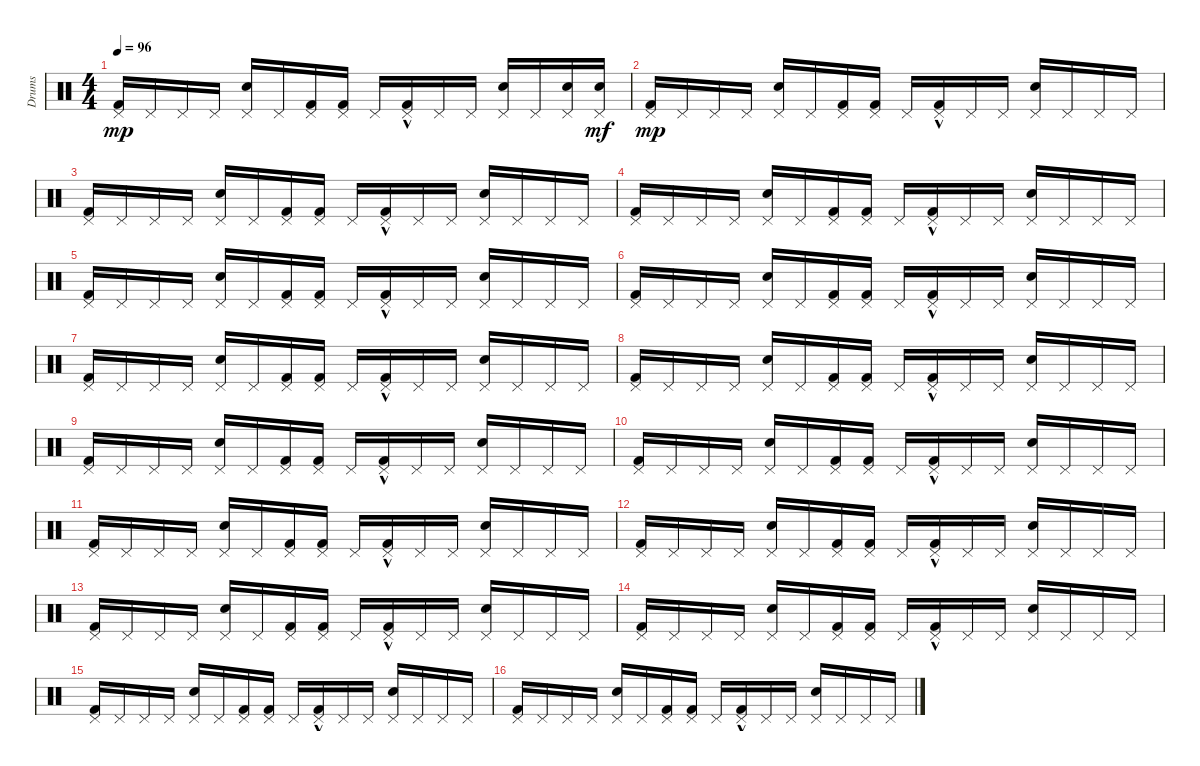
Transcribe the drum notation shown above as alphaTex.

\track ("Drums" "Drums") {instrument percussion}
\staff {score}
\articulation defaults
\ts (4 4)
\tempo 96
\clef neutral
\ks c
("Pedal Hi-Hat (hit)" "Kick (hit) 2").16{dy mp} "Pedal Hi-Hat (hit)".16 "Pedal Hi-Hat (hit)".16 "Pedal Hi-Hat (hit)".16 ("Electric Snare (hit)" "Pedal Hi-Hat (hit)").16 "Pedal Hi-Hat (hit)".16 ("Pedal Hi-Hat (hit)" "Kick (hit) 2").16 ("Pedal Hi-Hat (hit)" "Kick (hit) 2").16 "Pedal Hi-Hat (hit)".16 ("Pedal Hi-Hat (hit)" "Kick (hit) 2"{hac}).16 "Pedal Hi-Hat (hit)".16 "Pedal Hi-Hat (hit)".16 ("Electric Snare (hit)" "Pedal Hi-Hat (hit)").16 "Pedal Hi-Hat (hit)".16 ("Electric Snare (hit)" "Pedal Hi-Hat (hit)").16 ("Pedal Hi-Hat (hit)" "Electric Snare (hit)").16{dy mf} |
("Pedal Hi-Hat (hit)" "Kick (hit) 2").16{dy mp} "Pedal Hi-Hat (hit)".16 "Pedal Hi-Hat (hit)".16 "Pedal Hi-Hat (hit)".16 ("Electric Snare (hit)" "Pedal Hi-Hat (hit)").16 "Pedal Hi-Hat (hit)".16 ("Pedal Hi-Hat (hit)" "Kick (hit) 2").16 ("Pedal Hi-Hat (hit)" "Kick (hit) 2").16 "Pedal Hi-Hat (hit)".16 ("Pedal Hi-Hat (hit)" "Kick (hit) 2"{hac}).16 "Pedal Hi-Hat (hit)".16 "Pedal Hi-Hat (hit)".16 ("Electric Snare (hit)" "Pedal Hi-Hat (hit)").16 "Pedal Hi-Hat (hit)".16 "Pedal Hi-Hat (hit)".16 "Pedal Hi-Hat (hit)".16 |
("Pedal Hi-Hat (hit)" "Kick (hit) 2").16 "Pedal Hi-Hat (hit)".16 "Pedal Hi-Hat (hit)".16 "Pedal Hi-Hat (hit)".16 ("Electric Snare (hit)" "Pedal Hi-Hat (hit)").16 "Pedal Hi-Hat (hit)".16 ("Pedal Hi-Hat (hit)" "Kick (hit) 2").16 ("Pedal Hi-Hat (hit)" "Kick (hit) 2").16 "Pedal Hi-Hat (hit)".16 ("Pedal Hi-Hat (hit)" "Kick (hit) 2"{hac}).16 "Pedal Hi-Hat (hit)".16 "Pedal Hi-Hat (hit)".16 ("Electric Snare (hit)" "Pedal Hi-Hat (hit)").16 "Pedal Hi-Hat (hit)".16 "Pedal Hi-Hat (hit)".16 "Pedal Hi-Hat (hit)".16 |
("Pedal Hi-Hat (hit)" "Kick (hit) 2").16 "Pedal Hi-Hat (hit)".16 "Pedal Hi-Hat (hit)".16 "Pedal Hi-Hat (hit)".16 ("Electric Snare (hit)" "Pedal Hi-Hat (hit)").16 "Pedal Hi-Hat (hit)".16 ("Pedal Hi-Hat (hit)" "Kick (hit) 2").16 ("Pedal Hi-Hat (hit)" "Kick (hit) 2").16 "Pedal Hi-Hat (hit)".16 ("Pedal Hi-Hat (hit)" "Kick (hit) 2"{hac}).16 "Pedal Hi-Hat (hit)".16 "Pedal Hi-Hat (hit)".16 ("Electric Snare (hit)" "Pedal Hi-Hat (hit)").16 "Pedal Hi-Hat (hit)".16 "Pedal Hi-Hat (hit)".16 "Pedal Hi-Hat (hit)".16 |
("Pedal Hi-Hat (hit)" "Kick (hit) 2").16 "Pedal Hi-Hat (hit)".16 "Pedal Hi-Hat (hit)".16 "Pedal Hi-Hat (hit)".16 ("Electric Snare (hit)" "Pedal Hi-Hat (hit)").16 "Pedal Hi-Hat (hit)".16 ("Pedal Hi-Hat (hit)" "Kick (hit) 2").16 ("Pedal Hi-Hat (hit)" "Kick (hit) 2").16 "Pedal Hi-Hat (hit)".16 ("Pedal Hi-Hat (hit)" "Kick (hit) 2"{hac}).16 "Pedal Hi-Hat (hit)".16 "Pedal Hi-Hat (hit)".16 ("Electric Snare (hit)" "Pedal Hi-Hat (hit)").16 "Pedal Hi-Hat (hit)".16 "Pedal Hi-Hat (hit)".16 "Pedal Hi-Hat (hit)".16 |
("Pedal Hi-Hat (hit)" "Kick (hit) 2").16 "Pedal Hi-Hat (hit)".16 "Pedal Hi-Hat (hit)".16 "Pedal Hi-Hat (hit)".16 ("Electric Snare (hit)" "Pedal Hi-Hat (hit)").16 "Pedal Hi-Hat (hit)".16 ("Pedal Hi-Hat (hit)" "Kick (hit) 2").16 ("Pedal Hi-Hat (hit)" "Kick (hit) 2").16 "Pedal Hi-Hat (hit)".16 ("Pedal Hi-Hat (hit)" "Kick (hit) 2"{hac}).16 "Pedal Hi-Hat (hit)".16 "Pedal Hi-Hat (hit)".16 ("Electric Snare (hit)" "Pedal Hi-Hat (hit)").16 "Pedal Hi-Hat (hit)".16 "Pedal Hi-Hat (hit)".16 "Pedal Hi-Hat (hit)".16 |
("Pedal Hi-Hat (hit)" "Kick (hit) 2").16 "Pedal Hi-Hat (hit)".16 "Pedal Hi-Hat (hit)".16 "Pedal Hi-Hat (hit)".16 ("Electric Snare (hit)" "Pedal Hi-Hat (hit)").16 "Pedal Hi-Hat (hit)".16 ("Pedal Hi-Hat (hit)" "Kick (hit) 2").16 ("Pedal Hi-Hat (hit)" "Kick (hit) 2").16 "Pedal Hi-Hat (hit)".16 ("Pedal Hi-Hat (hit)" "Kick (hit) 2"{hac}).16 "Pedal Hi-Hat (hit)".16 "Pedal Hi-Hat (hit)".16 ("Electric Snare (hit)" "Pedal Hi-Hat (hit)").16 "Pedal Hi-Hat (hit)".16 "Pedal Hi-Hat (hit)".16 "Pedal Hi-Hat (hit)".16 |
("Pedal Hi-Hat (hit)" "Kick (hit) 2").16 "Pedal Hi-Hat (hit)".16 "Pedal Hi-Hat (hit)".16 "Pedal Hi-Hat (hit)".16 ("Electric Snare (hit)" "Pedal Hi-Hat (hit)").16 "Pedal Hi-Hat (hit)".16 ("Pedal Hi-Hat (hit)" "Kick (hit) 2").16 ("Pedal Hi-Hat (hit)" "Kick (hit) 2").16 "Pedal Hi-Hat (hit)".16 ("Pedal Hi-Hat (hit)" "Kick (hit) 2"{hac}).16 "Pedal Hi-Hat (hit)".16 "Pedal Hi-Hat (hit)".16 ("Electric Snare (hit)" "Pedal Hi-Hat (hit)").16 "Pedal Hi-Hat (hit)".16 "Pedal Hi-Hat (hit)".16 "Pedal Hi-Hat (hit)".16 |
("Pedal Hi-Hat (hit)" "Kick (hit) 2").16 "Pedal Hi-Hat (hit)".16 "Pedal Hi-Hat (hit)".16 "Pedal Hi-Hat (hit)".16 ("Electric Snare (hit)" "Pedal Hi-Hat (hit)").16 "Pedal Hi-Hat (hit)".16 ("Pedal Hi-Hat (hit)" "Kick (hit) 2").16 ("Pedal Hi-Hat (hit)" "Kick (hit) 2").16 "Pedal Hi-Hat (hit)".16 ("Pedal Hi-Hat (hit)" "Kick (hit) 2"{hac}).16 "Pedal Hi-Hat (hit)".16 "Pedal Hi-Hat (hit)".16 ("Electric Snare (hit)" "Pedal Hi-Hat (hit)").16 "Pedal Hi-Hat (hit)".16 "Pedal Hi-Hat (hit)".16 "Pedal Hi-Hat (hit)".16 |
("Pedal Hi-Hat (hit)" "Kick (hit) 2").16 "Pedal Hi-Hat (hit)".16 "Pedal Hi-Hat (hit)".16 "Pedal Hi-Hat (hit)".16 ("Electric Snare (hit)" "Pedal Hi-Hat (hit)").16 "Pedal Hi-Hat (hit)".16 ("Pedal Hi-Hat (hit)" "Kick (hit) 2").16 ("Pedal Hi-Hat (hit)" "Kick (hit) 2").16 "Pedal Hi-Hat (hit)".16 ("Pedal Hi-Hat (hit)" "Kick (hit) 2"{hac}).16 "Pedal Hi-Hat (hit)".16 "Pedal Hi-Hat (hit)".16 ("Electric Snare (hit)" "Pedal Hi-Hat (hit)").16 "Pedal Hi-Hat (hit)".16 "Pedal Hi-Hat (hit)".16 "Pedal Hi-Hat (hit)".16 |
("Pedal Hi-Hat (hit)" "Kick (hit) 2").16 "Pedal Hi-Hat (hit)".16 "Pedal Hi-Hat (hit)".16 "Pedal Hi-Hat (hit)".16 ("Electric Snare (hit)" "Pedal Hi-Hat (hit)").16 "Pedal Hi-Hat (hit)".16 ("Pedal Hi-Hat (hit)" "Kick (hit) 2").16 ("Pedal Hi-Hat (hit)" "Kick (hit) 2").16 "Pedal Hi-Hat (hit)".16 ("Pedal Hi-Hat (hit)" "Kick (hit) 2"{hac}).16 "Pedal Hi-Hat (hit)".16 "Pedal Hi-Hat (hit)".16 ("Electric Snare (hit)" "Pedal Hi-Hat (hit)").16 "Pedal Hi-Hat (hit)".16 "Pedal Hi-Hat (hit)".16 "Pedal Hi-Hat (hit)".16 |
("Pedal Hi-Hat (hit)" "Kick (hit) 2").16 "Pedal Hi-Hat (hit)".16 "Pedal Hi-Hat (hit)".16 "Pedal Hi-Hat (hit)".16 ("Electric Snare (hit)" "Pedal Hi-Hat (hit)").16 "Pedal Hi-Hat (hit)".16 ("Pedal Hi-Hat (hit)" "Kick (hit) 2").16 ("Pedal Hi-Hat (hit)" "Kick (hit) 2").16 "Pedal Hi-Hat (hit)".16 ("Pedal Hi-Hat (hit)" "Kick (hit) 2"{hac}).16 "Pedal Hi-Hat (hit)".16 "Pedal Hi-Hat (hit)".16 ("Electric Snare (hit)" "Pedal Hi-Hat (hit)").16 "Pedal Hi-Hat (hit)".16 "Pedal Hi-Hat (hit)".16 "Pedal Hi-Hat (hit)".16 |
("Pedal Hi-Hat (hit)" "Kick (hit) 2").16 "Pedal Hi-Hat (hit)".16 "Pedal Hi-Hat (hit)".16 "Pedal Hi-Hat (hit)".16 ("Electric Snare (hit)" "Pedal Hi-Hat (hit)").16 "Pedal Hi-Hat (hit)".16 ("Pedal Hi-Hat (hit)" "Kick (hit) 2").16 ("Pedal Hi-Hat (hit)" "Kick (hit) 2").16 "Pedal Hi-Hat (hit)".16 ("Pedal Hi-Hat (hit)" "Kick (hit) 2"{hac}).16 "Pedal Hi-Hat (hit)".16 "Pedal Hi-Hat (hit)".16 ("Electric Snare (hit)" "Pedal Hi-Hat (hit)").16 "Pedal Hi-Hat (hit)".16 "Pedal Hi-Hat (hit)".16 "Pedal Hi-Hat (hit)".16 |
("Pedal Hi-Hat (hit)" "Kick (hit) 2").16 "Pedal Hi-Hat (hit)".16 "Pedal Hi-Hat (hit)".16 "Pedal Hi-Hat (hit)".16 ("Electric Snare (hit)" "Pedal Hi-Hat (hit)").16 "Pedal Hi-Hat (hit)".16 ("Pedal Hi-Hat (hit)" "Kick (hit) 2").16 ("Pedal Hi-Hat (hit)" "Kick (hit) 2").16 "Pedal Hi-Hat (hit)".16 ("Pedal Hi-Hat (hit)" "Kick (hit) 2"{hac}).16 "Pedal Hi-Hat (hit)".16 "Pedal Hi-Hat (hit)".16 ("Electric Snare (hit)" "Pedal Hi-Hat (hit)").16 "Pedal Hi-Hat (hit)".16 "Pedal Hi-Hat (hit)".16 "Pedal Hi-Hat (hit)".16 |
("Pedal Hi-Hat (hit)" "Kick (hit) 2").16 "Pedal Hi-Hat (hit)".16 "Pedal Hi-Hat (hit)".16 "Pedal Hi-Hat (hit)".16 ("Electric Snare (hit)" "Pedal Hi-Hat (hit)").16 "Pedal Hi-Hat (hit)".16 ("Pedal Hi-Hat (hit)" "Kick (hit) 2").16 ("Pedal Hi-Hat (hit)" "Kick (hit) 2").16 "Pedal Hi-Hat (hit)".16 ("Pedal Hi-Hat (hit)" "Kick (hit) 2"{hac}).16 "Pedal Hi-Hat (hit)".16 "Pedal Hi-Hat (hit)".16 ("Electric Snare (hit)" "Pedal Hi-Hat (hit)").16 "Pedal Hi-Hat (hit)".16 "Pedal Hi-Hat (hit)".16 "Pedal Hi-Hat (hit)".16 |
("Pedal Hi-Hat (hit)" "Kick (hit) 2").16 "Pedal Hi-Hat (hit)".16 "Pedal Hi-Hat (hit)".16 "Pedal Hi-Hat (hit)".16 ("Electric Snare (hit)" "Pedal Hi-Hat (hit)").16 "Pedal Hi-Hat (hit)".16 ("Pedal Hi-Hat (hit)" "Kick (hit) 2").16 ("Pedal Hi-Hat (hit)" "Kick (hit) 2").16 "Pedal Hi-Hat (hit)".16 ("Pedal Hi-Hat (hit)" "Kick (hit) 2"{hac}).16 "Pedal Hi-Hat (hit)".16 "Pedal Hi-Hat (hit)".16 ("Electric Snare (hit)" "Pedal Hi-Hat (hit)").16 "Pedal Hi-Hat (hit)".16 "Pedal Hi-Hat (hit)".16 "Pedal Hi-Hat (hit)".16
